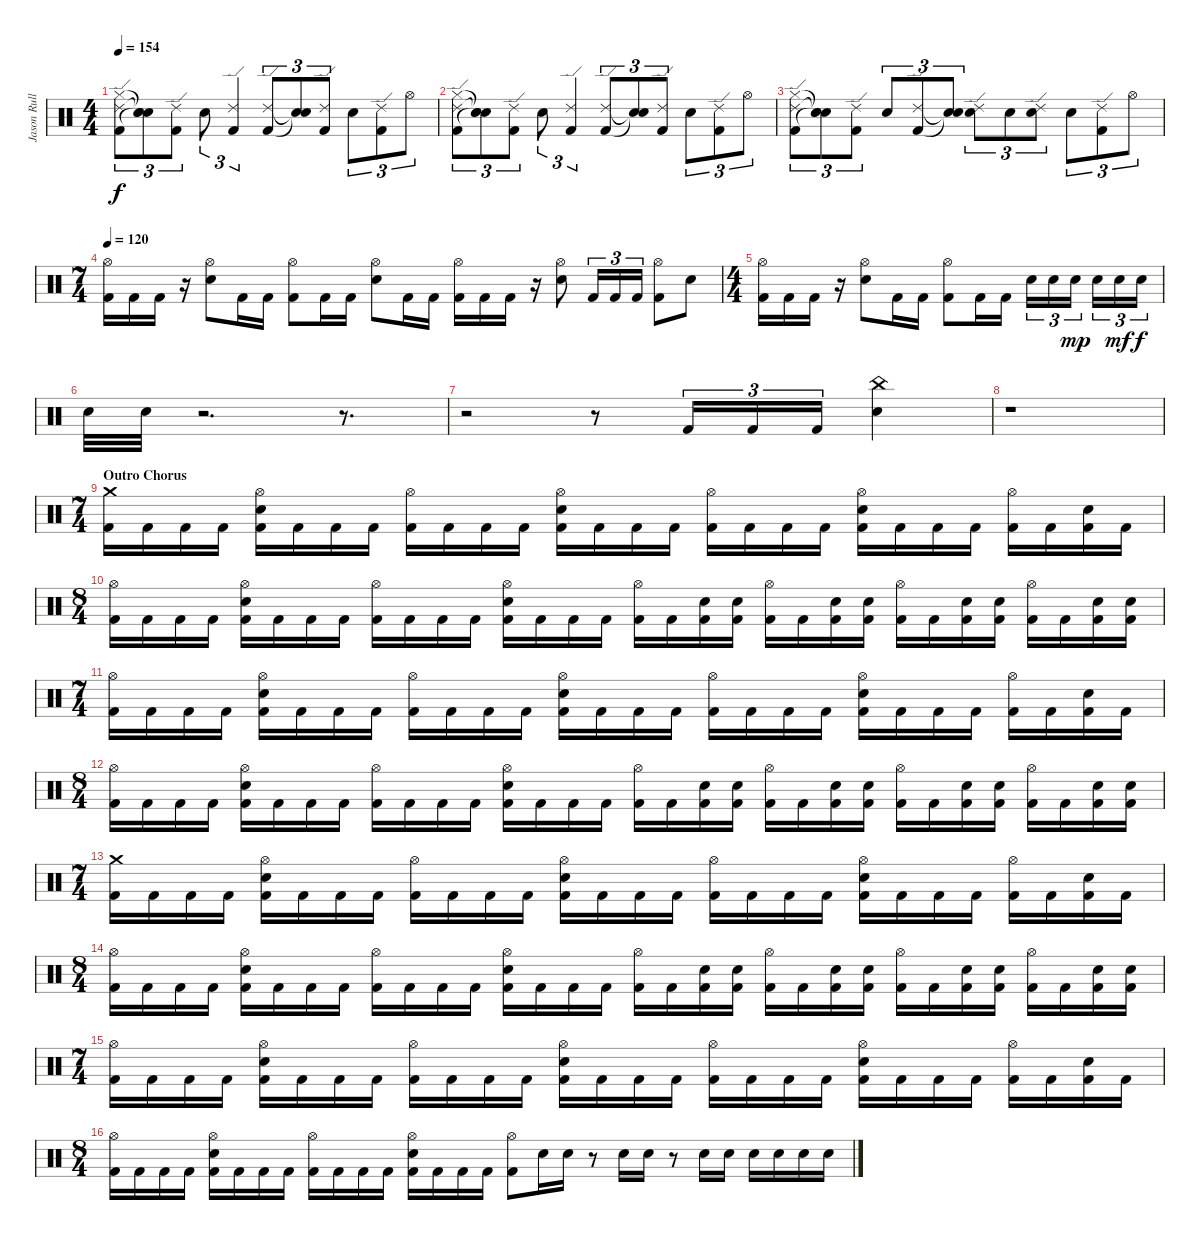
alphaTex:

\track ("Jason Rullo" "Jason Rull") {instrument percussion}
\staff {score}
\articulation defaults
\ts (4 4)
\tempo 154
\clef neutral
\ks c
("Hi-Hat (closed)" "Ride (edge) 2" "Kick (hit) 2").8{tu (3 2) dy f} ("Snare (hit)"{t} "Snare (hit)"{t} "Snare (hit)"{t}).8{tu (3 2)} ("Ride (edge) 2" "Kick (hit) 2").8{tu (3 2)} "Electric Snare (hit)".8{tu (3 2)} ("Ride (edge) 2" "Kick (hit) 2").4{tu (3 2)} ("Ride (edge) 2" "Kick (hit) 2").8{tu (3 2)} ("Snare (hit)"{t} "Snare (hit)"{t}).8{tu (3 2)} ("Ride (edge) 2" "Kick (hit) 2").8{tu (3 2)} "Electric Snare (hit)".8{tu (3 2)} ("Ride (edge) 2" "Kick (hit) 2").8{tu (3 2)} "Hi-Hat (open)".8{tu (3 2)} |
("Hi-Hat (closed)" "Ride (edge) 2" "Kick (hit) 2").8{tu (3 2)} ("Snare (hit)"{t} "Snare (hit)"{t} "Snare (hit)"{t}).8{tu (3 2)} ("Ride (edge) 2" "Kick (hit) 2").8{tu (3 2)} "Electric Snare (hit)".8{tu (3 2)} ("Ride (edge) 2" "Kick (hit) 2").4{tu (3 2)} ("Ride (edge) 2" "Kick (hit) 2").8{tu (3 2)} ("Snare (hit)"{t} "Snare (hit)"{t}).8{tu (3 2)} ("Ride (edge) 2" "Kick (hit) 2").8{tu (3 2)} "Electric Snare (hit)".8{tu (3 2)} ("Ride (edge) 2" "Kick (hit) 2").8{tu (3 2)} "Hi-Hat (open)".8{tu (3 2)} |
("Hi-Hat (closed)" "Ride (edge) 2" "Kick (hit) 2").8{tu (3 2)} ("Snare (hit)"{t} "Snare (hit)"{t} "Snare (hit)"{t}).8{tu (3 2)} ("Ride (edge) 2" "Kick (hit) 2").8{tu (3 2)} "Electric Snare (hit)".8{tu (3 2)} ("Ride (edge) 2" "Kick (hit) 2").8{tu (3 2)} ("Snare (hit)"{t} "Snare (hit)"{t}).8{tu (3 2)} ("Electric Snare (hit)" "Ride (edge) 2").8{tu (3 2)} "Electric Snare (hit)".8{tu (3 2)} ("Electric Snare (hit)" "Ride (edge) 2").8{tu (3 2)} "Electric Snare (hit)".8{tu (3 2)} ("Ride (edge) 2" "Kick (hit) 2").8{tu (3 2)} "Hi-Hat (open)".8{tu (3 2)} |
\ts (7 4)
\tempo 120
("Kick (hit) 2" "Hi-Hat (open)").16 "Kick (hit) 2".16 "Kick (hit) 2".16 r.16 ("Electric Snare (hit)" "Hi-Hat (open)").8 "Kick (hit) 2".16 "Kick (hit) 2".16 ("Kick (hit) 2" "Hi-Hat (open)").8 "Kick (hit) 2".16 "Kick (hit) 2".16 ("Electric Snare (hit)" "Hi-Hat (open)").8 "Kick (hit) 2".16 "Kick (hit) 2".16 ("Kick (hit) 2" "Hi-Hat (open)").16 "Kick (hit) 2".16 "Kick (hit) 2".16 r.16 ("Hi-Hat (open)" "Electric Snare (hit)").8 "Kick (hit) 2".16{tu (3 2)} "Kick (hit) 2".16{tu (3 2)} "Kick (hit) 2".16{tu (3 2)} ("Kick (hit) 2" "Hi-Hat (open)").8 "Electric Snare (hit)".8 |
\ts (4 4)
("Hi-Hat (open)" "Kick (hit) 2").16 "Kick (hit) 2".16 "Kick (hit) 2".16 r.16 ("Hi-Hat (open)" "Electric Snare (hit)").8 "Kick (hit) 2".16 "Kick (hit) 2".16 ("Hi-Hat (open)" "Kick (hit) 2").8 "Kick (hit) 2".16 "Kick (hit) 2".16 "Electric Snare (hit)".16{tu (3 2)} "Electric Snare (hit)".16{tu (3 2)} "Electric Snare (hit)".16{tu (3 2) dy mp} "Electric Snare (hit)".16{tu (3 2)} "Electric Snare (hit)".16{tu (3 2) dy mf} "Electric Snare (hit)".16{tu (3 2) dy f} |
"Electric Snare (hit)".32 "Electric Snare (hit)".32 r.2{d} r.8{d} |
r.2 r.8 "Kick (hit) 2".16{tu (3 2)} "Kick (hit) 2".16{tu (3 2)} "Kick (hit) 2".16{tu (3 2)} ("China (hit)" "Electric Snare (hit)").4 |
r.1 |
\ts (7 4)
\section ("" "Outro Chorus")
("Crash medium (hit)" "Kick (hit) 2").16 "Kick (hit) 2".16 "Kick (hit) 2".16 "Kick (hit) 2".16 ("Kick (hit) 2" "Electric Snare (hit)" "Hi-Hat (open)").16 "Kick (hit) 2".16 "Kick (hit) 2".16 "Kick (hit) 2".16 ("Kick (hit) 2" "Hi-Hat (open)").16 "Kick (hit) 2".16 "Kick (hit) 2".16 "Kick (hit) 2".16 ("Kick (hit) 2" "Electric Snare (hit)" "Hi-Hat (open)").16 "Kick (hit) 2".16 "Kick (hit) 2".16 "Kick (hit) 2".16 ("Kick (hit) 2" "Hi-Hat (open)").16 "Kick (hit) 2".16 "Kick (hit) 2".16 "Kick (hit) 2".16 ("Kick (hit) 2" "Hi-Hat (open)" "Electric Snare (hit)").16 "Kick (hit) 2".16 "Kick (hit) 2".16 "Kick (hit) 2".16 ("Kick (hit) 2" "Hi-Hat (open)").16 "Kick (hit) 2".16 ("Kick (hit) 2" "Electric Snare (hit)").16 "Kick (hit) 2".16 |
\ts (8 4)
("Kick (hit) 2" "Hi-Hat (open)").16 "Kick (hit) 2".16 "Kick (hit) 2".16 "Kick (hit) 2".16 ("Kick (hit) 2" "Electric Snare (hit)" "Hi-Hat (open)").16 "Kick (hit) 2".16 "Kick (hit) 2".16 "Kick (hit) 2".16 ("Kick (hit) 2" "Hi-Hat (open)").16 "Kick (hit) 2".16 "Kick (hit) 2".16 "Kick (hit) 2".16 ("Kick (hit) 2" "Electric Snare (hit)" "Hi-Hat (open)").16 "Kick (hit) 2".16 "Kick (hit) 2".16 "Kick (hit) 2".16 ("Kick (hit) 2" "Hi-Hat (open)").16 "Kick (hit) 2".16 ("Electric Snare (hit)" "Kick (hit) 2").16 ("Electric Snare (hit)" "Kick (hit) 2").16 ("Kick (hit) 2" "Hi-Hat (open)").16 "Kick (hit) 2".16 ("Electric Snare (hit)" "Kick (hit) 2").16 ("Electric Snare (hit)" "Kick (hit) 2").16 ("Kick (hit) 2" "Hi-Hat (open)").16 "Kick (hit) 2".16 ("Kick (hit) 2" "Electric Snare (hit)").16 ("Electric Snare (hit)" "Kick (hit) 2").16 ("Hi-Hat (open)" "Kick (hit) 2").16 "Kick (hit) 2".16 ("Electric Snare (hit)" "Kick (hit) 2").16 ("Electric Snare (hit)" "Kick (hit) 2").16 |
\ts (7 4)
("Kick (hit) 2" "Hi-Hat (open)").16 "Kick (hit) 2".16 "Kick (hit) 2".16 "Kick (hit) 2".16 ("Kick (hit) 2" "Electric Snare (hit)" "Hi-Hat (open)").16 "Kick (hit) 2".16 "Kick (hit) 2".16 "Kick (hit) 2".16 ("Kick (hit) 2" "Hi-Hat (open)").16 "Kick (hit) 2".16 "Kick (hit) 2".16 "Kick (hit) 2".16 ("Kick (hit) 2" "Electric Snare (hit)" "Hi-Hat (open)").16 "Kick (hit) 2".16 "Kick (hit) 2".16 "Kick (hit) 2".16 ("Kick (hit) 2" "Hi-Hat (open)").16 "Kick (hit) 2".16 "Kick (hit) 2".16 "Kick (hit) 2".16 ("Kick (hit) 2" "Hi-Hat (open)" "Electric Snare (hit)").16 "Kick (hit) 2".16 "Kick (hit) 2".16 "Kick (hit) 2".16 ("Kick (hit) 2" "Hi-Hat (open)").16 "Kick (hit) 2".16 ("Kick (hit) 2" "Electric Snare (hit)").16 "Kick (hit) 2".16 |
\ts (8 4)
("Kick (hit) 2" "Hi-Hat (open)").16 "Kick (hit) 2".16 "Kick (hit) 2".16 "Kick (hit) 2".16 ("Kick (hit) 2" "Electric Snare (hit)" "Hi-Hat (open)").16 "Kick (hit) 2".16 "Kick (hit) 2".16 "Kick (hit) 2".16 ("Kick (hit) 2" "Hi-Hat (open)").16 "Kick (hit) 2".16 "Kick (hit) 2".16 "Kick (hit) 2".16 ("Kick (hit) 2" "Electric Snare (hit)" "Hi-Hat (open)").16 "Kick (hit) 2".16 "Kick (hit) 2".16 "Kick (hit) 2".16 ("Kick (hit) 2" "Hi-Hat (open)").16 "Kick (hit) 2".16 ("Electric Snare (hit)" "Kick (hit) 2").16 ("Electric Snare (hit)" "Kick (hit) 2").16 ("Kick (hit) 2" "Hi-Hat (open)").16 "Kick (hit) 2".16 ("Electric Snare (hit)" "Kick (hit) 2").16 ("Electric Snare (hit)" "Kick (hit) 2").16 ("Kick (hit) 2" "Hi-Hat (open)").16 "Kick (hit) 2".16 ("Kick (hit) 2" "Electric Snare (hit)").16 ("Electric Snare (hit)" "Kick (hit) 2").16 ("Hi-Hat (open)" "Kick (hit) 2").16 "Kick (hit) 2".16 ("Electric Snare (hit)" "Kick (hit) 2").16 ("Electric Snare (hit)" "Kick (hit) 2").16 |
\ts (7 4)
("Crash medium (hit)" "Kick (hit) 2").16 "Kick (hit) 2".16 "Kick (hit) 2".16 "Kick (hit) 2".16 ("Kick (hit) 2" "Electric Snare (hit)" "Hi-Hat (open)").16 "Kick (hit) 2".16 "Kick (hit) 2".16 "Kick (hit) 2".16 ("Kick (hit) 2" "Hi-Hat (open)").16 "Kick (hit) 2".16 "Kick (hit) 2".16 "Kick (hit) 2".16 ("Kick (hit) 2" "Electric Snare (hit)" "Hi-Hat (open)").16 "Kick (hit) 2".16 "Kick (hit) 2".16 "Kick (hit) 2".16 ("Kick (hit) 2" "Hi-Hat (open)").16 "Kick (hit) 2".16 "Kick (hit) 2".16 "Kick (hit) 2".16 ("Kick (hit) 2" "Hi-Hat (open)" "Electric Snare (hit)").16 "Kick (hit) 2".16 "Kick (hit) 2".16 "Kick (hit) 2".16 ("Kick (hit) 2" "Hi-Hat (open)").16 "Kick (hit) 2".16 ("Kick (hit) 2" "Electric Snare (hit)").16 "Kick (hit) 2".16 |
\ts (8 4)
("Kick (hit) 2" "Hi-Hat (open)").16 "Kick (hit) 2".16 "Kick (hit) 2".16 "Kick (hit) 2".16 ("Kick (hit) 2" "Electric Snare (hit)" "Hi-Hat (open)").16 "Kick (hit) 2".16 "Kick (hit) 2".16 "Kick (hit) 2".16 ("Kick (hit) 2" "Hi-Hat (open)").16 "Kick (hit) 2".16 "Kick (hit) 2".16 "Kick (hit) 2".16 ("Kick (hit) 2" "Electric Snare (hit)" "Hi-Hat (open)").16 "Kick (hit) 2".16 "Kick (hit) 2".16 "Kick (hit) 2".16 ("Kick (hit) 2" "Hi-Hat (open)").16 "Kick (hit) 2".16 ("Electric Snare (hit)" "Kick (hit) 2").16 ("Electric Snare (hit)" "Kick (hit) 2").16 ("Kick (hit) 2" "Hi-Hat (open)").16 "Kick (hit) 2".16 ("Electric Snare (hit)" "Kick (hit) 2").16 ("Electric Snare (hit)" "Kick (hit) 2").16 ("Kick (hit) 2" "Hi-Hat (open)").16 "Kick (hit) 2".16 ("Kick (hit) 2" "Electric Snare (hit)").16 ("Electric Snare (hit)" "Kick (hit) 2").16 ("Hi-Hat (open)" "Kick (hit) 2").16 "Kick (hit) 2".16 ("Electric Snare (hit)" "Kick (hit) 2").16 ("Electric Snare (hit)" "Kick (hit) 2").16 |
\ts (7 4)
("Kick (hit) 2" "Hi-Hat (open)").16 "Kick (hit) 2".16 "Kick (hit) 2".16 "Kick (hit) 2".16 ("Kick (hit) 2" "Electric Snare (hit)" "Hi-Hat (open)").16 "Kick (hit) 2".16 "Kick (hit) 2".16 "Kick (hit) 2".16 ("Kick (hit) 2" "Hi-Hat (open)").16 "Kick (hit) 2".16 "Kick (hit) 2".16 "Kick (hit) 2".16 ("Kick (hit) 2" "Electric Snare (hit)" "Hi-Hat (open)").16 "Kick (hit) 2".16 "Kick (hit) 2".16 "Kick (hit) 2".16 ("Kick (hit) 2" "Hi-Hat (open)").16 "Kick (hit) 2".16 "Kick (hit) 2".16 "Kick (hit) 2".16 ("Kick (hit) 2" "Hi-Hat (open)" "Electric Snare (hit)").16 "Kick (hit) 2".16 "Kick (hit) 2".16 "Kick (hit) 2".16 ("Kick (hit) 2" "Hi-Hat (open)").16 "Kick (hit) 2".16 ("Kick (hit) 2" "Electric Snare (hit)").16 "Kick (hit) 2".16 |
\ts (8 4)
("Kick (hit) 2" "Hi-Hat (open)").16 "Kick (hit) 2".16 "Kick (hit) 2".16 "Kick (hit) 2".16 ("Kick (hit) 2" "Electric Snare (hit)" "Hi-Hat (open)").16 "Kick (hit) 2".16 "Kick (hit) 2".16 "Kick (hit) 2".16 ("Kick (hit) 2" "Hi-Hat (open)").16 "Kick (hit) 2".16 "Kick (hit) 2".16 "Kick (hit) 2".16 ("Kick (hit) 2" "Electric Snare (hit)" "Hi-Hat (open)").16 "Kick (hit) 2".16 "Kick (hit) 2".16 "Kick (hit) 2".16 ("Kick (hit) 2" "Hi-Hat (open)").8 "Electric Snare (hit)".16 "Electric Snare (hit)".16 r.8 "Electric Snare (hit)".16 "Electric Snare (hit)".16 r.8 "Electric Snare (hit)".16 "Electric Snare (hit)".16 "Electric Snare (hit)".16 "Electric Snare (hit)".16 "Electric Snare (hit)".16 "Electric Snare (hit)".16
